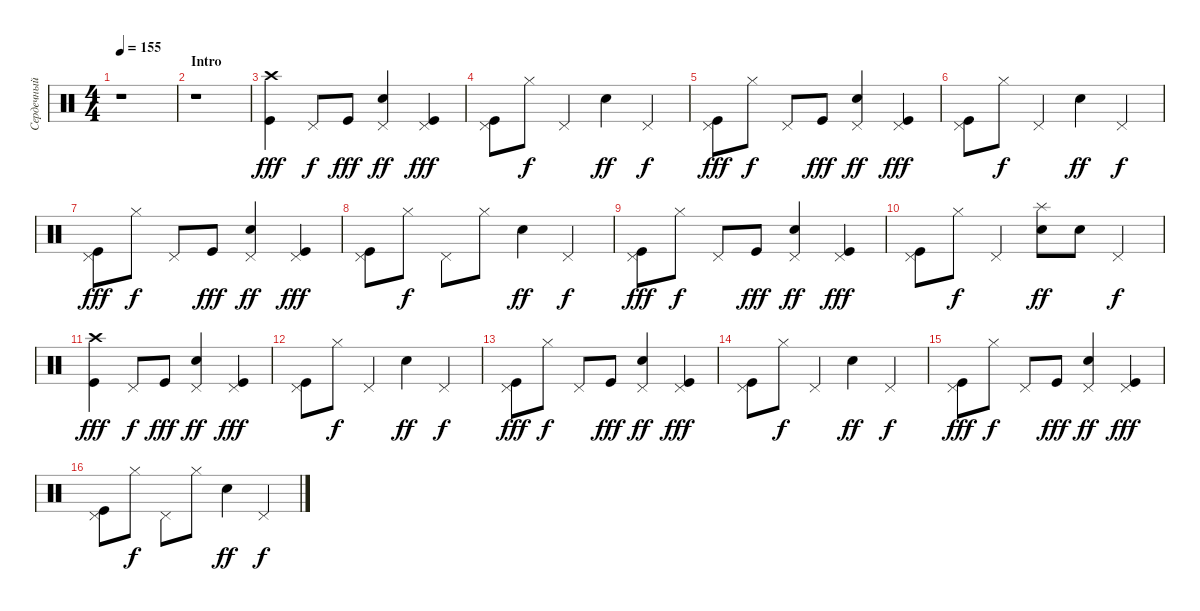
\track ("Сердечный (Ударные)" "Сердечный ") {instrument percussion}
\staff {score}
\articulation defaults
\ts (4 4)
\tempo 155
\clef neutral
\ks c
r.1{dy fff} |
\section ("" "Intro")
r.1 |
("Crash high (hit)" "Kick (hit)").4 "Pedal Hi-Hat (hit)".8{dy f} "Kick (hit)".8{dy fff} ("Electric Snare (hit)" "Pedal Hi-Hat (hit)").4{dy ff} ("Kick (hit)" "Pedal Hi-Hat (hit)").4{dy fff} |
("Kick (hit)" "Pedal Hi-Hat (hit)").8 "Hi-Hat (closed)".8{dy f} "Pedal Hi-Hat (hit)".4 "Electric Snare (hit)".4{dy ff} "Pedal Hi-Hat (hit)".4{dy f} |
("Kick (hit)" "Pedal Hi-Hat (hit)").8{dy fff} "Hi-Hat (closed)".8{dy f} "Pedal Hi-Hat (hit)".8 "Kick (hit)".8{dy fff} ("Electric Snare (hit)" "Pedal Hi-Hat (hit)").4{dy ff} ("Kick (hit)" "Pedal Hi-Hat (hit)").4{dy fff} |
("Kick (hit)" "Pedal Hi-Hat (hit)").8 "Hi-Hat (closed)".8{dy f} "Pedal Hi-Hat (hit)".4 "Electric Snare (hit)".4{dy ff} "Pedal Hi-Hat (hit)".4{dy f} |
("Kick (hit)" "Pedal Hi-Hat (hit)").8{dy fff} "Hi-Hat (closed)".8{dy f} "Pedal Hi-Hat (hit)".8 "Kick (hit)".8{dy fff} ("Electric Snare (hit)" "Pedal Hi-Hat (hit)").4{dy ff} ("Kick (hit)" "Pedal Hi-Hat (hit)").4{dy fff} |
("Kick (hit)" "Pedal Hi-Hat (hit)").8 "Hi-Hat (closed)".8{dy f} "Pedal Hi-Hat (hit)".8 "Hi-Hat (closed)".8 "Electric Snare (hit)".4{dy ff} "Pedal Hi-Hat (hit)".4{dy f} |
("Kick (hit)" "Pedal Hi-Hat (hit)").8{dy fff} "Hi-Hat (closed)".8{dy f} "Pedal Hi-Hat (hit)".8 "Kick (hit)".8{dy fff} ("Electric Snare (hit)" "Pedal Hi-Hat (hit)").4{dy ff} ("Kick (hit)" "Pedal Hi-Hat (hit)").4{dy fff} |
("Kick (hit)" "Pedal Hi-Hat (hit)").8 "Hi-Hat (closed)".8{dy f} "Pedal Hi-Hat (hit)".4 ("Splash (hit)" "Electric Snare (hit)").8{dy ff} "Electric Snare (hit)".8 "Pedal Hi-Hat (hit)".4{dy f} |
("Crash high (hit)" "Kick (hit)").4{dy fff} "Pedal Hi-Hat (hit)".8{dy f} "Kick (hit)".8{dy fff} ("Electric Snare (hit)" "Pedal Hi-Hat (hit)").4{dy ff} ("Kick (hit)" "Pedal Hi-Hat (hit)").4{dy fff} |
("Kick (hit)" "Pedal Hi-Hat (hit)").8 "Hi-Hat (closed)".8{dy f} "Pedal Hi-Hat (hit)".4 "Electric Snare (hit)".4{dy ff} "Pedal Hi-Hat (hit)".4{dy f} |
("Kick (hit)" "Pedal Hi-Hat (hit)").8{dy fff} "Hi-Hat (closed)".8{dy f} "Pedal Hi-Hat (hit)".8 "Kick (hit)".8{dy fff} ("Electric Snare (hit)" "Pedal Hi-Hat (hit)").4{dy ff} ("Kick (hit)" "Pedal Hi-Hat (hit)").4{dy fff} |
("Kick (hit)" "Pedal Hi-Hat (hit)").8 "Hi-Hat (closed)".8{dy f} "Pedal Hi-Hat (hit)".4 "Electric Snare (hit)".4{dy ff} "Pedal Hi-Hat (hit)".4{dy f} |
("Kick (hit)" "Pedal Hi-Hat (hit)").8{dy fff} "Hi-Hat (closed)".8{dy f} "Pedal Hi-Hat (hit)".8 "Kick (hit)".8{dy fff} ("Electric Snare (hit)" "Pedal Hi-Hat (hit)").4{dy ff} ("Kick (hit)" "Pedal Hi-Hat (hit)").4{dy fff} |
("Kick (hit)" "Pedal Hi-Hat (hit)").8 "Hi-Hat (closed)".8{dy f} "Pedal Hi-Hat (hit)".8 "Hi-Hat (closed)".8 "Electric Snare (hit)".4{dy ff} "Pedal Hi-Hat (hit)".4{dy f}
